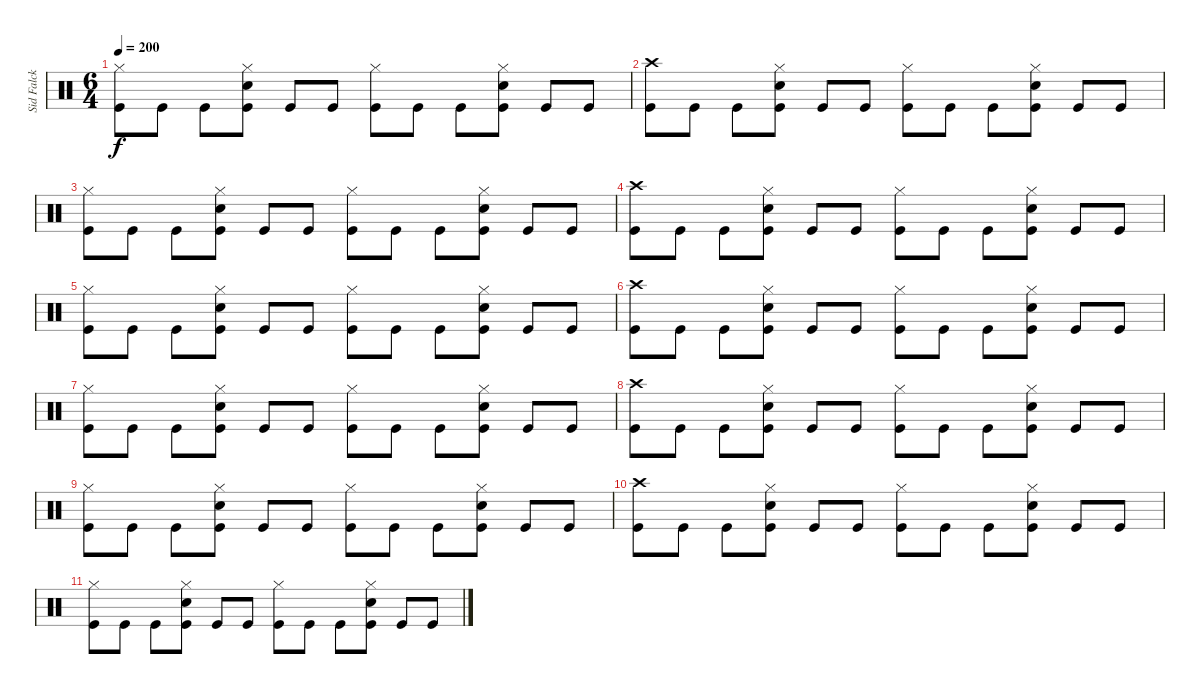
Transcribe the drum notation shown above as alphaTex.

\track ("Sid Falck - drums" "Sid Falck ") {instrument percussion}
\staff {score}
\articulation defaults
\ts (6 4)
\tempo 200
\clef neutral
\ks c
("Hi-Hat (closed)" "Kick (hit)").8{dy f} "Kick (hit)".8 "Kick (hit)".8 ("Hi-Hat (closed)" "Electric Snare (hit)" "Kick (hit)").8 "Kick (hit)".8 "Kick (hit)".8 ("Hi-Hat (closed)" "Kick (hit)").8 "Kick (hit)".8 "Kick (hit)".8 ("Hi-Hat (closed)" "Electric Snare (hit)" "Kick (hit)").8 "Kick (hit)".8 "Kick (hit)".8 |
("Crash high (hit)" "Kick (hit)").8 "Kick (hit)".8 "Kick (hit)".8 ("Hi-Hat (closed)" "Electric Snare (hit)" "Kick (hit)").8 "Kick (hit)".8 "Kick (hit)".8 ("Hi-Hat (closed)" "Kick (hit)").8 "Kick (hit)".8 "Kick (hit)".8 ("Hi-Hat (closed)" "Electric Snare (hit)" "Kick (hit)").8 "Kick (hit)".8 "Kick (hit)".8 |
("Hi-Hat (closed)" "Kick (hit)").8 "Kick (hit)".8 "Kick (hit)".8 ("Hi-Hat (closed)" "Electric Snare (hit)" "Kick (hit)").8 "Kick (hit)".8 "Kick (hit)".8 ("Hi-Hat (closed)" "Kick (hit)").8 "Kick (hit)".8 "Kick (hit)".8 ("Hi-Hat (closed)" "Electric Snare (hit)" "Kick (hit)").8 "Kick (hit)".8 "Kick (hit)".8 |
("Crash high (hit)" "Kick (hit)").8 "Kick (hit)".8 "Kick (hit)".8 ("Hi-Hat (closed)" "Electric Snare (hit)" "Kick (hit)").8 "Kick (hit)".8 "Kick (hit)".8 ("Hi-Hat (closed)" "Kick (hit)").8 "Kick (hit)".8 "Kick (hit)".8 ("Hi-Hat (closed)" "Electric Snare (hit)" "Kick (hit)").8 "Kick (hit)".8 "Kick (hit)".8 |
("Hi-Hat (closed)" "Kick (hit)").8 "Kick (hit)".8 "Kick (hit)".8 ("Hi-Hat (closed)" "Electric Snare (hit)" "Kick (hit)").8 "Kick (hit)".8 "Kick (hit)".8 ("Hi-Hat (closed)" "Kick (hit)").8 "Kick (hit)".8 "Kick (hit)".8 ("Hi-Hat (closed)" "Electric Snare (hit)" "Kick (hit)").8 "Kick (hit)".8 "Kick (hit)".8 |
("Crash high (hit)" "Kick (hit)").8 "Kick (hit)".8 "Kick (hit)".8 ("Hi-Hat (closed)" "Electric Snare (hit)" "Kick (hit)").8 "Kick (hit)".8 "Kick (hit)".8 ("Hi-Hat (closed)" "Kick (hit)").8 "Kick (hit)".8 "Kick (hit)".8 ("Hi-Hat (closed)" "Electric Snare (hit)" "Kick (hit)").8 "Kick (hit)".8 "Kick (hit)".8 |
("Hi-Hat (closed)" "Kick (hit)").8 "Kick (hit)".8 "Kick (hit)".8 ("Hi-Hat (closed)" "Electric Snare (hit)" "Kick (hit)").8 "Kick (hit)".8 "Kick (hit)".8 ("Hi-Hat (closed)" "Kick (hit)").8 "Kick (hit)".8 "Kick (hit)".8 ("Hi-Hat (closed)" "Electric Snare (hit)" "Kick (hit)").8 "Kick (hit)".8 "Kick (hit)".8 |
("Crash high (hit)" "Kick (hit)").8 "Kick (hit)".8 "Kick (hit)".8 ("Hi-Hat (closed)" "Electric Snare (hit)" "Kick (hit)").8 "Kick (hit)".8 "Kick (hit)".8 ("Hi-Hat (closed)" "Kick (hit)").8 "Kick (hit)".8 "Kick (hit)".8 ("Hi-Hat (closed)" "Electric Snare (hit)" "Kick (hit)").8 "Kick (hit)".8 "Kick (hit)".8 |
("Hi-Hat (closed)" "Kick (hit)").8 "Kick (hit)".8 "Kick (hit)".8 ("Hi-Hat (closed)" "Electric Snare (hit)" "Kick (hit)").8 "Kick (hit)".8 "Kick (hit)".8 ("Hi-Hat (closed)" "Kick (hit)").8 "Kick (hit)".8 "Kick (hit)".8 ("Hi-Hat (closed)" "Electric Snare (hit)" "Kick (hit)").8 "Kick (hit)".8 "Kick (hit)".8 |
("Crash high (hit)" "Kick (hit)").8 "Kick (hit)".8 "Kick (hit)".8 ("Hi-Hat (closed)" "Electric Snare (hit)" "Kick (hit)").8 "Kick (hit)".8 "Kick (hit)".8 ("Hi-Hat (closed)" "Kick (hit)").8 "Kick (hit)".8 "Kick (hit)".8 ("Hi-Hat (closed)" "Electric Snare (hit)" "Kick (hit)").8 "Kick (hit)".8 "Kick (hit)".8 |
("Hi-Hat (closed)" "Kick (hit)").8 "Kick (hit)".8 "Kick (hit)".8 ("Hi-Hat (closed)" "Electric Snare (hit)" "Kick (hit)").8 "Kick (hit)".8 "Kick (hit)".8 ("Hi-Hat (closed)" "Kick (hit)").8 "Kick (hit)".8 "Kick (hit)".8 ("Hi-Hat (closed)" "Electric Snare (hit)" "Kick (hit)").8 "Kick (hit)".8 "Kick (hit)".8
